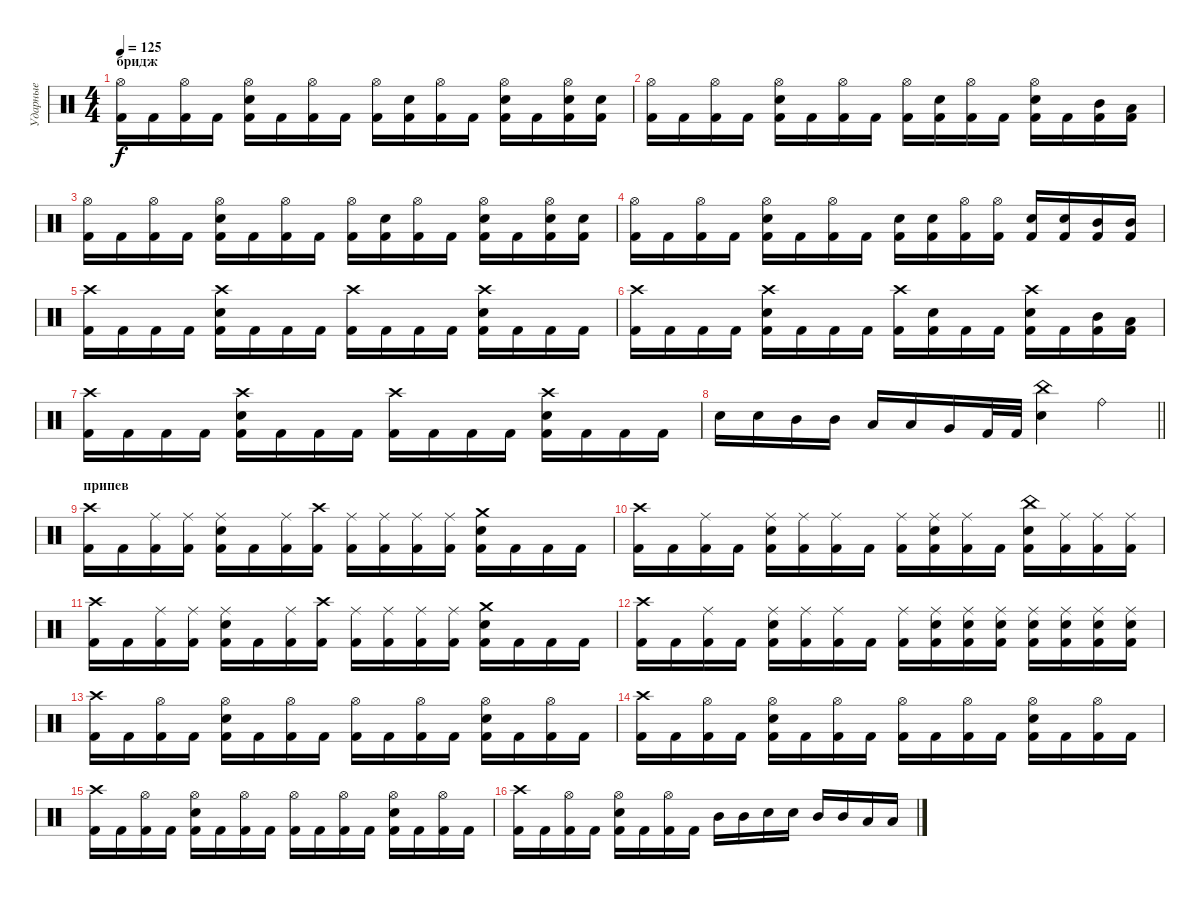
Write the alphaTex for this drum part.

\track ("Ударные" "Ударные") {instrument percussion}
\staff {score}
\articulation defaults
\ts (4 4)
\section ("" "бридж")
\tempo 125
\clef neutral
\ks c
("Hi-Hat (open)" "Kick (hit) 2").16{dy f} "Kick (hit) 2".16 ("Hi-Hat (open)" "Kick (hit) 2").16 "Kick (hit) 2".16 ("Hi-Hat (open)" "Electric Snare (hit)" "Kick (hit) 2").16 "Kick (hit) 2".16 ("Hi-Hat (open)" "Kick (hit) 2").16 "Kick (hit) 2".16 ("Hi-Hat (open)" "Kick (hit) 2").16 ("Electric Snare (hit)" "Kick (hit) 2").16 ("Hi-Hat (open)" "Kick (hit) 2").16 "Kick (hit) 2".16 ("Hi-Hat (open)" "Electric Snare (hit)" "Kick (hit) 2").16 "Kick (hit) 2".16 ("Hi-Hat (open)" "Electric Snare (hit)" "Kick (hit) 2").16 ("Electric Snare (hit)" "Kick (hit) 2").16 |
("Hi-Hat (open)" "Kick (hit) 2").16 "Kick (hit) 2".16 ("Hi-Hat (open)" "Kick (hit) 2").16 "Kick (hit) 2".16 ("Hi-Hat (open)" "Electric Snare (hit)" "Kick (hit) 2").16 "Kick (hit) 2".16 ("Hi-Hat (open)" "Kick (hit) 2").16 "Kick (hit) 2".16 ("Hi-Hat (open)" "Kick (hit) 2").16 ("Electric Snare (hit)" "Kick (hit) 2").16 ("Hi-Hat (open)" "Kick (hit) 2").16 "Kick (hit) 2".16 ("Hi-Hat (open)" "Electric Snare (hit)" "Kick (hit) 2").16 "Kick (hit) 2".16 ("Mid Tom (hit)" "Kick (hit) 2").16 ("Low Tom (hit)" "Kick (hit) 2").16 |
("Hi-Hat (open)" "Kick (hit) 2").16 "Kick (hit) 2".16 ("Hi-Hat (open)" "Kick (hit) 2").16 "Kick (hit) 2".16 ("Hi-Hat (open)" "Electric Snare (hit)" "Kick (hit) 2").16 "Kick (hit) 2".16 ("Hi-Hat (open)" "Kick (hit) 2").16 "Kick (hit) 2".16 ("Hi-Hat (open)" "Kick (hit) 2").16 ("Electric Snare (hit)" "Kick (hit) 2").16 ("Hi-Hat (open)" "Kick (hit) 2").16 "Kick (hit) 2".16 ("Hi-Hat (open)" "Electric Snare (hit)" "Kick (hit) 2").16 "Kick (hit) 2".16 ("Hi-Hat (open)" "Electric Snare (hit)" "Kick (hit) 2").16 ("Electric Snare (hit)" "Kick (hit) 2").16 |
("Hi-Hat (open)" "Kick (hit) 2").16 "Kick (hit) 2".16 ("Hi-Hat (open)" "Kick (hit) 2").16 "Kick (hit) 2".16 ("Hi-Hat (open)" "Electric Snare (hit)" "Kick (hit) 2").16 "Kick (hit) 2".16 ("Hi-Hat (open)" "Kick (hit) 2").16 "Kick (hit) 2".16 ("Electric Snare (hit)" "Kick (hit) 2").16 ("Electric Snare (hit)" "Kick (hit) 2").16 ("Hi-Hat (open)" "Kick (hit) 2").16 ("Hi-Hat (open)" "Kick (hit) 2").16 ("Electric Snare (hit)" "Kick (hit) 2").16 ("Electric Snare (hit)" "Kick (hit) 2").16 ("Mid Tom (hit)" "Kick (hit) 2").16 ("Mid Tom (hit)" "Kick (hit) 2").16 |
("Crash high (hit)" "Kick (hit) 2").16 "Kick (hit) 2".16 "Kick (hit) 2".16 "Kick (hit) 2".16 ("Crash high (hit)" "Electric Snare (hit)" "Kick (hit) 2").16 "Kick (hit) 2".16 "Kick (hit) 2".16 "Kick (hit) 2".16 ("Crash high (hit)" "Kick (hit) 2").16 "Kick (hit) 2".16 "Kick (hit) 2".16 "Kick (hit) 2".16 ("Crash high (hit)" "Electric Snare (hit)" "Kick (hit) 2").16 "Kick (hit) 2".16 "Kick (hit) 2".16 "Kick (hit) 2".16 |
("Crash high (hit)" "Kick (hit) 2").16 "Kick (hit) 2".16 "Kick (hit) 2".16 "Kick (hit) 2".16 ("Crash high (hit)" "Electric Snare (hit)" "Kick (hit) 2").16 "Kick (hit) 2".16 "Kick (hit) 2".16 "Kick (hit) 2".16 ("Crash high (hit)" "Kick (hit) 2").16 ("Electric Snare (hit)" "Kick (hit) 2").16 "Kick (hit) 2".16 "Kick (hit) 2".16 ("Crash high (hit)" "Electric Snare (hit)" "Kick (hit) 2").16 "Kick (hit) 2".16 ("Mid Tom (hit)" "Kick (hit) 2").16 ("Low Tom (hit)" "Kick (hit) 2").16 |
("Crash high (hit)" "Kick (hit) 2").16 "Kick (hit) 2".16 "Kick (hit) 2".16 "Kick (hit) 2".16 ("Crash high (hit)" "Electric Snare (hit)" "Kick (hit) 2").16 "Kick (hit) 2".16 "Kick (hit) 2".16 "Kick (hit) 2".16 ("Crash high (hit)" "Kick (hit) 2").16 "Kick (hit) 2".16 "Kick (hit) 2".16 "Kick (hit) 2".16 ("Crash high (hit)" "Electric Snare (hit)" "Kick (hit) 2").16 "Kick (hit) 2".16 "Kick (hit) 2".16 "Kick (hit) 2".16 |
\barLineRight lightlight "Electric Snare (hit)".16 "Electric Snare (hit)".16 "Mid Tom (hit)".16 "Mid Tom (hit)".16 "Low Tom (hit)".16 "Low Tom (hit)".16 "Very Low Tom (hit)".16 "Kick (hit) 2".32 "Kick (hit) 2".32
("China (hit)" "Electric Snare (hit)").4 "Ride (bell)".4 |
\section ("" "припев")
("Crash high (hit)" "Kick (hit) 2").16 "Kick (hit) 2".16 ("Ride (middle)" "Kick (hit) 2").16 ("Ride (middle)" "Kick (hit) 2").16 ("Ride (middle)" "Electric Snare (hit)" "Kick (hit) 2").16 "Kick (hit) 2".16 ("Ride (middle)" "Kick (hit) 2").16 ("Crash high (hit)" "Kick (hit) 2").16 ("Ride (middle)" "Kick (hit) 2").16 ("Ride (middle)" "Kick (hit) 2").16 ("Ride (middle)" "Kick (hit) 2").16 ("Ride (middle)" "Kick (hit) 2").16 ("Crash medium (hit)" "Electric Snare (hit)" "Kick (hit) 2").16 "Kick (hit) 2".16 "Kick (hit) 2".16 "Kick (hit) 2".16 |
("Crash high (hit)" "Kick (hit) 2").16 "Kick (hit) 2".16 ("Ride (middle)" "Kick (hit) 2").16 "Kick (hit) 2".16 ("Ride (middle)" "Electric Snare (hit)" "Kick (hit) 2").16 ("Ride (middle)" "Kick (hit) 2").16 ("Ride (middle)" "Kick (hit) 2").16 "Kick (hit) 2".16 ("Ride (middle)" "Kick (hit) 2").16 ("Ride (middle)" "Electric Snare (hit)" "Kick (hit) 2").16 ("Ride (middle)" "Kick (hit) 2").16 "Kick (hit) 2".16 ("China (hit)" "Electric Snare (hit)" "Kick (hit) 2").16 ("Ride (middle)" "Kick (hit) 2").16 ("Ride (middle)" "Kick (hit) 2").16 ("Ride (middle)" "Kick (hit) 2").16 |
("Crash high (hit)" "Kick (hit) 2").16 "Kick (hit) 2".16 ("Ride (middle)" "Kick (hit) 2").16 ("Ride (middle)" "Kick (hit) 2").16 ("Ride (middle)" "Electric Snare (hit)" "Kick (hit) 2").16 "Kick (hit) 2".16 ("Ride (middle)" "Kick (hit) 2").16 ("Crash high (hit)" "Kick (hit) 2").16 ("Ride (middle)" "Kick (hit) 2").16 ("Ride (middle)" "Kick (hit) 2").16 ("Ride (middle)" "Kick (hit) 2").16 ("Ride (middle)" "Kick (hit) 2").16 ("Crash medium (hit)" "Electric Snare (hit)" "Kick (hit) 2").16 "Kick (hit) 2".16 "Kick (hit) 2".16 "Kick (hit) 2".16 |
("Crash high (hit)" "Kick (hit) 2").16 "Kick (hit) 2".16 ("Ride (middle)" "Kick (hit) 2").16 "Kick (hit) 2".16 ("Ride (middle)" "Electric Snare (hit)" "Kick (hit) 2").16 ("Ride (middle)" "Kick (hit) 2").16 ("Ride (middle)" "Kick (hit) 2").16 "Kick (hit) 2".16 ("Ride (middle)" "Kick (hit) 2").16 ("Ride (middle)" "Electric Snare (hit)" "Kick (hit) 2").16 ("Ride (middle)" "Electric Snare (hit)" "Kick (hit) 2").16 ("Ride (middle)" "Electric Snare (hit)" "Kick (hit) 2").16 ("Ride (middle)" "Electric Snare (hit)" "Kick (hit) 2").16 ("Ride (middle)" "Electric Snare (hit)" "Kick (hit) 2").16 ("Ride (middle)" "Electric Snare (hit)" "Kick (hit) 2").16 ("Ride (middle)" "Electric Snare (hit)" "Kick (hit) 2").16 |
("Crash high (hit)" "Kick (hit) 2").16 "Kick (hit) 2".16 ("Hi-Hat (open)" "Kick (hit) 2").16 "Kick (hit) 2".16 ("Hi-Hat (open)" "Electric Snare (hit)" "Kick (hit) 2").16 "Kick (hit) 2".16 ("Hi-Hat (open)" "Kick (hit) 2").16 "Kick (hit) 2".16 ("Hi-Hat (open)" "Kick (hit) 2").16 "Kick (hit) 2".16 ("Hi-Hat (open)" "Kick (hit) 2").16 "Kick (hit) 2".16 ("Hi-Hat (open)" "Electric Snare (hit)" "Kick (hit) 2").16 "Kick (hit) 2".16 ("Hi-Hat (open)" "Kick (hit) 2").16 "Kick (hit) 2".16 |
("Crash high (hit)" "Kick (hit) 2").16 "Kick (hit) 2".16 ("Hi-Hat (open)" "Kick (hit) 2").16 "Kick (hit) 2".16 ("Hi-Hat (open)" "Electric Snare (hit)" "Kick (hit) 2").16 "Kick (hit) 2".16 ("Hi-Hat (open)" "Kick (hit) 2").16 "Kick (hit) 2".16 ("Hi-Hat (open)" "Kick (hit) 2").16 "Kick (hit) 2".16 ("Hi-Hat (open)" "Kick (hit) 2").16 "Kick (hit) 2".16 ("Hi-Hat (open)" "Electric Snare (hit)" "Kick (hit) 2").16 "Kick (hit) 2".16 ("Hi-Hat (open)" "Kick (hit) 2").16 "Kick (hit) 2".16 |
("Crash high (hit)" "Kick (hit) 2").16 "Kick (hit) 2".16 ("Hi-Hat (open)" "Kick (hit) 2").16 "Kick (hit) 2".16 ("Hi-Hat (open)" "Electric Snare (hit)" "Kick (hit) 2").16 "Kick (hit) 2".16 ("Hi-Hat (open)" "Kick (hit) 2").16 "Kick (hit) 2".16 ("Hi-Hat (open)" "Kick (hit) 2").16 "Kick (hit) 2".16 ("Hi-Hat (open)" "Kick (hit) 2").16 "Kick (hit) 2".16 ("Hi-Hat (open)" "Electric Snare (hit)" "Kick (hit) 2").16 "Kick (hit) 2".16 ("Hi-Hat (open)" "Kick (hit) 2").16 "Kick (hit) 2".16 |
("Crash high (hit)" "Kick (hit) 2").16 "Kick (hit) 2".16 ("Hi-Hat (open)" "Kick (hit) 2").16 "Kick (hit) 2".16 ("Hi-Hat (open)" "Electric Snare (hit)" "Kick (hit) 2").16 "Kick (hit) 2".16 ("Hi-Hat (open)" "Kick (hit) 2").16 "Kick (hit) 2".16 "Mid Tom (hit)".16 "Mid Tom (hit)".16 "Electric Snare (hit)".16 "Electric Snare (hit)".16 "Mid Tom (hit)".16 "Mid Tom (hit)".16 "Low Tom (hit)".16 "Low Tom (hit)".16
